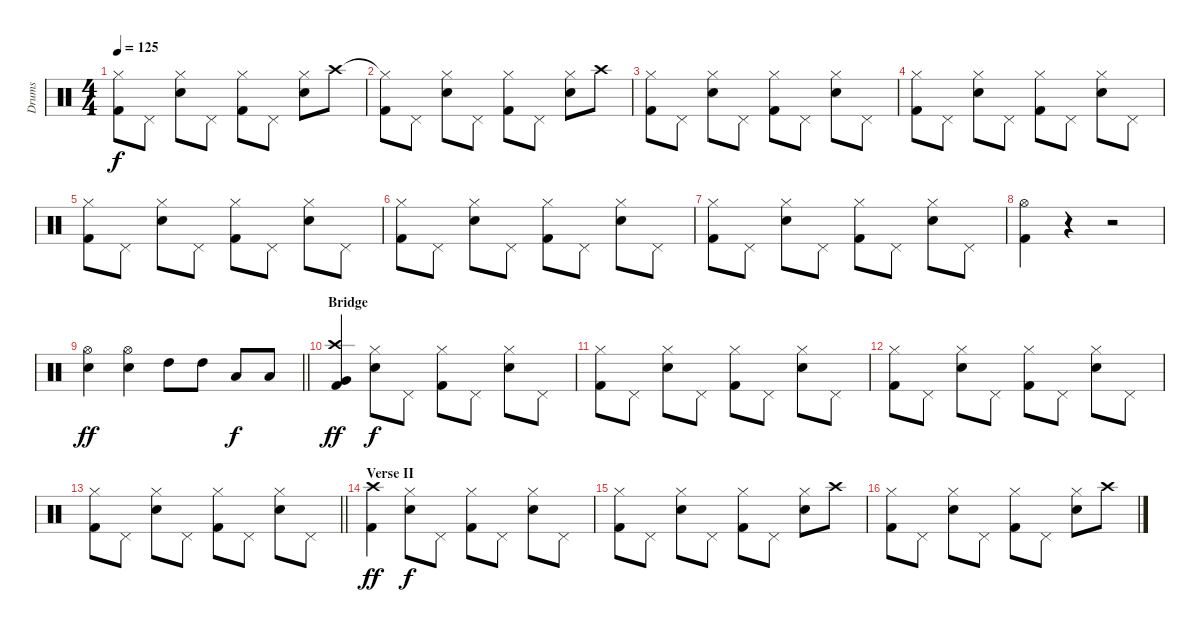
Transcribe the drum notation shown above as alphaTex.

\track ("Drums" "Drums") {instrument percussion}
\staff {score}
\articulation defaults
\ts (4 4)
\tempo 125
\clef neutral
\ks c
("Hi-Hat (closed)"{t} "Kick (hit) 2").8{dy f} "Pedal Hi-Hat (hit)".8 ("Hi-Hat (closed)" "Electric Snare (hit)").8 "Pedal Hi-Hat (hit)".8 ("Hi-Hat (closed)" "Kick (hit) 2").8 "Pedal Hi-Hat (hit)".8 ("Hi-Hat (closed)" "Electric Snare (hit)").8 "Crash high (hit)".8 |
("Hi-Hat (closed)"{t} "Kick (hit) 2").8 "Pedal Hi-Hat (hit)".8 ("Hi-Hat (closed)" "Electric Snare (hit)").8 "Pedal Hi-Hat (hit)".8 ("Hi-Hat (closed)" "Kick (hit) 2").8 "Pedal Hi-Hat (hit)".8 ("Hi-Hat (closed)" "Electric Snare (hit)").8 "Crash high (hit)".8 |
("Hi-Hat (closed)" "Kick (hit) 2").8 "Pedal Hi-Hat (hit)".8 ("Hi-Hat (closed)" "Electric Snare (hit)").8 "Pedal Hi-Hat (hit)".8 ("Hi-Hat (closed)" "Kick (hit) 2").8 "Pedal Hi-Hat (hit)".8 ("Hi-Hat (closed)" "Electric Snare (hit)").8 "Pedal Hi-Hat (hit)".8 |
("Hi-Hat (closed)" "Kick (hit) 2").8 "Pedal Hi-Hat (hit)".8 ("Hi-Hat (closed)" "Electric Snare (hit)").8 "Pedal Hi-Hat (hit)".8 ("Hi-Hat (closed)" "Kick (hit) 2").8 "Pedal Hi-Hat (hit)".8 ("Hi-Hat (closed)" "Electric Snare (hit)").8 "Pedal Hi-Hat (hit)".8 |
("Hi-Hat (closed)" "Kick (hit) 2").8 "Pedal Hi-Hat (hit)".8 ("Hi-Hat (closed)" "Electric Snare (hit)").8 "Pedal Hi-Hat (hit)".8 ("Hi-Hat (closed)" "Kick (hit) 2").8 "Pedal Hi-Hat (hit)".8 ("Hi-Hat (closed)" "Electric Snare (hit)").8 "Pedal Hi-Hat (hit)".8 |
("Hi-Hat (closed)" "Kick (hit) 2").8 "Pedal Hi-Hat (hit)".8 ("Hi-Hat (closed)" "Electric Snare (hit)").8 "Pedal Hi-Hat (hit)".8 ("Hi-Hat (closed)" "Kick (hit) 2").8 "Pedal Hi-Hat (hit)".8 ("Hi-Hat (closed)" "Electric Snare (hit)").8 "Pedal Hi-Hat (hit)".8 |
("Hi-Hat (closed)" "Kick (hit) 2").8 "Pedal Hi-Hat (hit)".8 ("Hi-Hat (closed)" "Electric Snare (hit)").8 "Pedal Hi-Hat (hit)".8 ("Hi-Hat (closed)" "Kick (hit) 2").8 "Pedal Hi-Hat (hit)".8 ("Hi-Hat (closed)" "Electric Snare (hit)").8 "Pedal Hi-Hat (hit)".8 |
("Hi-Hat (open)" "Kick (hit) 2").4 r.4 r.2 |
\barLineRight lightlight
("Hi-Hat (open)" "Snare (hit) 2").4{dy ff} ("Hi-Hat (open)" "Snare (hit) 2").4 "High Tom (hit)".8 "High Tom (hit)".8 "Low Tom (hit)".8{dy f} "Low Tom (hit)".8 |
\section ("" "Bridge")
("Crash high (hit)" "Very Low Tom (hit)" "Kick (hit) 2").4{dy ff} ("Hi-Hat (closed)" "Electric Snare (hit)").8{dy f} "Pedal Hi-Hat (hit)".8 ("Hi-Hat (closed)" "Kick (hit) 2").8 "Pedal Hi-Hat (hit)".8 ("Hi-Hat (closed)" "Electric Snare (hit)").8 "Pedal Hi-Hat (hit)".8 |
("Hi-Hat (closed)" "Kick (hit) 2").8 "Pedal Hi-Hat (hit)".8 ("Hi-Hat (closed)" "Electric Snare (hit)").8 "Pedal Hi-Hat (hit)".8 ("Hi-Hat (closed)" "Kick (hit) 2").8 "Pedal Hi-Hat (hit)".8 ("Hi-Hat (closed)" "Electric Snare (hit)").8 "Pedal Hi-Hat (hit)".8 |
("Hi-Hat (closed)" "Kick (hit) 2").8 "Pedal Hi-Hat (hit)".8 ("Hi-Hat (closed)" "Electric Snare (hit)").8 "Pedal Hi-Hat (hit)".8 ("Hi-Hat (closed)" "Kick (hit) 2").8 "Pedal Hi-Hat (hit)".8 ("Hi-Hat (closed)" "Electric Snare (hit)").8 "Pedal Hi-Hat (hit)".8 |
\barLineRight lightlight
("Hi-Hat (closed)" "Kick (hit) 2").8 "Pedal Hi-Hat (hit)".8 ("Hi-Hat (closed)" "Electric Snare (hit)").8 "Pedal Hi-Hat (hit)".8 ("Hi-Hat (closed)" "Kick (hit) 2").8 "Pedal Hi-Hat (hit)".8 ("Hi-Hat (closed)" "Electric Snare (hit)").8 "Pedal Hi-Hat (hit)".8 |
\section ("" "Verse II")
("Crash high (hit)" "Kick (hit) 2").4{dy ff} ("Hi-Hat (closed)" "Electric Snare (hit)").8{dy f} "Pedal Hi-Hat (hit)".8 ("Hi-Hat (closed)" "Kick (hit) 2").8 "Pedal Hi-Hat (hit)".8 ("Hi-Hat (closed)" "Electric Snare (hit)").8 "Pedal Hi-Hat (hit)".8 |
("Hi-Hat (closed)" "Kick (hit) 2").8 "Pedal Hi-Hat (hit)".8 ("Hi-Hat (closed)" "Electric Snare (hit)").8 "Pedal Hi-Hat (hit)".8 ("Hi-Hat (closed)" "Kick (hit) 2").8 "Pedal Hi-Hat (hit)".8 ("Hi-Hat (closed)" "Electric Snare (hit)").8 "Crash high (hit)".8 |
("Hi-Hat (closed)" "Kick (hit) 2").8 "Pedal Hi-Hat (hit)".8 ("Hi-Hat (closed)" "Electric Snare (hit)").8 "Pedal Hi-Hat (hit)".8 ("Hi-Hat (closed)" "Kick (hit) 2").8 "Pedal Hi-Hat (hit)".8 ("Hi-Hat (closed)" "Electric Snare (hit)").8 "Crash high (hit)".8
